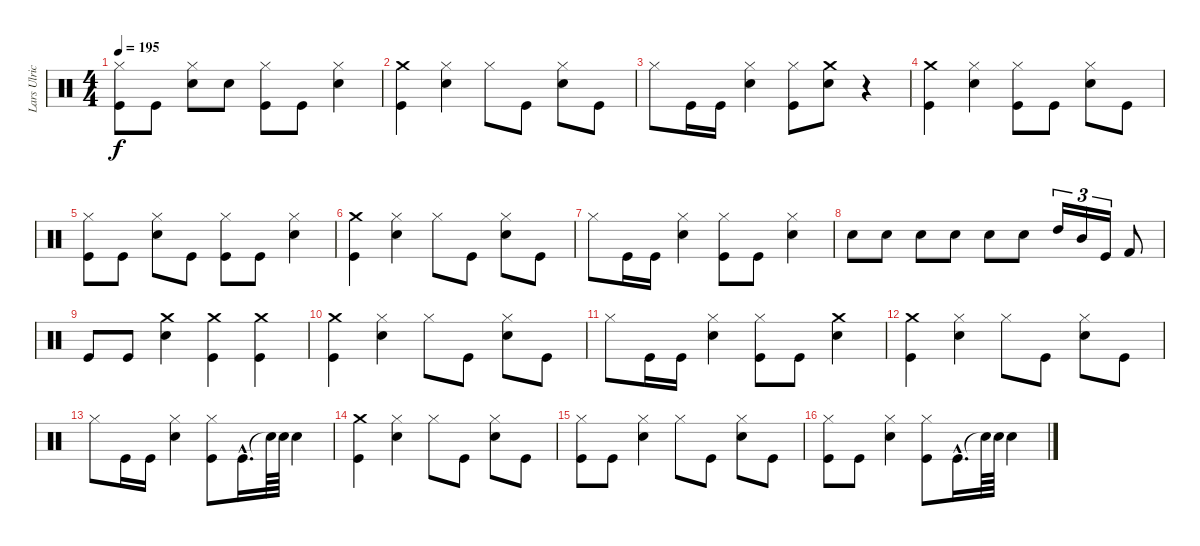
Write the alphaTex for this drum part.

\track ("Lars Ulrich (Drums)" "Lars Ulric") {instrument percussion}
\staff {score}
\articulation defaults
\ts (4 4)
\tempo 195
\clef neutral
\ks c
("Kick (hit)" "Hi-Hat (closed)").8{dy f} "Kick (hit)".8 ("Snare (hit) 2" "Hi-Hat (closed)").8 "Snare (hit) 2".8 ("Kick (hit)" "Hi-Hat (closed)").8 "Kick (hit)".8 ("Snare (hit) 2" "Hi-Hat (closed)").4 |
("Kick (hit)" "Crash medium (hit)").4 ("Hi-Hat (closed)" "Snare (hit) 2").4 "Hi-Hat (closed)".8 "Kick (hit)".8 ("Snare (hit) 2" "Hi-Hat (closed)").8 "Kick (hit)".8 |
"Hi-Hat (closed)".8 "Kick (hit)".16 "Kick (hit)".16 ("Snare (hit) 2" "Hi-Hat (closed)").4 ("Kick (hit)" "Hi-Hat (closed)").8 ("Crash medium (hit)" "Snare (hit) 2").8 r.4 |
("Kick (hit)" "Crash medium (hit)").4 ("Hi-Hat (closed)" "Snare (hit) 2").4 ("Kick (hit)" "Hi-Hat (closed)").8 "Kick (hit)".8 ("Snare (hit) 2" "Hi-Hat (closed)").8 "Kick (hit)".8 |
("Hi-Hat (closed)" "Kick (hit)").8 "Kick (hit)".8 ("Snare (hit) 2" "Hi-Hat (closed)").8 "Kick (hit)".8 ("Hi-Hat (closed)" "Kick (hit)").8 "Kick (hit)".8 ("Snare (hit) 2" "Hi-Hat (closed)").4 |
("Kick (hit)" "Crash medium (hit)").4 ("Hi-Hat (closed)" "Snare (hit) 2").4 "Hi-Hat (closed)".8 "Kick (hit)".8 ("Snare (hit) 2" "Hi-Hat (closed)").8 "Kick (hit)".8 |
"Hi-Hat (closed)".8 "Kick (hit)".16 "Kick (hit)".16 ("Snare (hit) 2" "Hi-Hat (closed)").4 ("Kick (hit)" "Hi-Hat (closed)").8 "Kick (hit)".8 ("Snare (hit) 2" "Hi-Hat (closed)").4 |
"Snare (hit) 2".8 "Snare (hit) 2".8 "Snare (hit) 2".8 "Snare (hit) 2".8 "Snare (hit) 2".8 "Snare (hit) 2".8 "High Tom (hit)".16{tu (3 2)} "Mid Tom (hit)".16{tu (3 2)} "Kick (hit)".16{tu (3 2)} "Kick (hit) 2".8 |
"Kick (hit)".8 "Kick (hit)".8 ("Crash medium (hit)" "Snare (hit) 2").4 ("Crash medium (hit)" "Kick (hit)").4 ("Crash medium (hit)" "Kick (hit)").4 |
("Kick (hit)" "Crash medium (hit)").4 ("Hi-Hat (closed)" "Snare (hit) 2").4 "Hi-Hat (closed)".8 "Kick (hit)".8 ("Snare (hit) 2" "Hi-Hat (closed)").8 "Kick (hit)".8 |
"Hi-Hat (closed)".8 "Kick (hit)".16 "Kick (hit)".16 ("Snare (hit) 2" "Hi-Hat (closed)").4 ("Kick (hit)" "Hi-Hat (closed)").8 "Kick (hit)".8 ("Crash medium (hit)" "Snare (hit) 2").4 |
("Kick (hit)" "Crash medium (hit)").4 ("Hi-Hat (closed)" "Snare (hit) 2").4 "Hi-Hat (closed)".8 "Kick (hit)".8 ("Snare (hit) 2" "Hi-Hat (closed)").8 "Kick (hit)".8 |
"Hi-Hat (closed)".8 "Kick (hit)".16 "Kick (hit)".16 ("Snare (hit) 2" "Hi-Hat (closed)").4 ("Kick (hit)" "Hi-Hat (closed)").8 "Kick (hit)"{hac}.16{d} "Snare (hit)"{t}.64 "Snare (hit) 2".64 "Snare (hit) 2".4 |
("Kick (hit)" "Crash medium (hit)").4 ("Snare (hit) 2" "Hi-Hat (closed)").4 "Hi-Hat (closed)".8 "Kick (hit)".8 ("Snare (hit) 2" "Hi-Hat (closed)").8 "Kick (hit)".8 |
("Kick (hit)" "Hi-Hat (closed)").8 "Kick (hit)".8 ("Snare (hit) 2" "Hi-Hat (closed)").4 "Hi-Hat (closed)".8 "Kick (hit)".8 ("Snare (hit) 2" "Hi-Hat (closed)").8 "Kick (hit)".8 |
("Hi-Hat (closed)" "Kick (hit)").8 "Kick (hit)".8 ("Snare (hit) 2" "Hi-Hat (closed)").4 ("Hi-Hat (closed)" "Kick (hit)").8 "Kick (hit)"{hac}.16{d} "Snare (hit)"{t}.64 "Snare (hit) 2".64 "Snare (hit) 2".4
